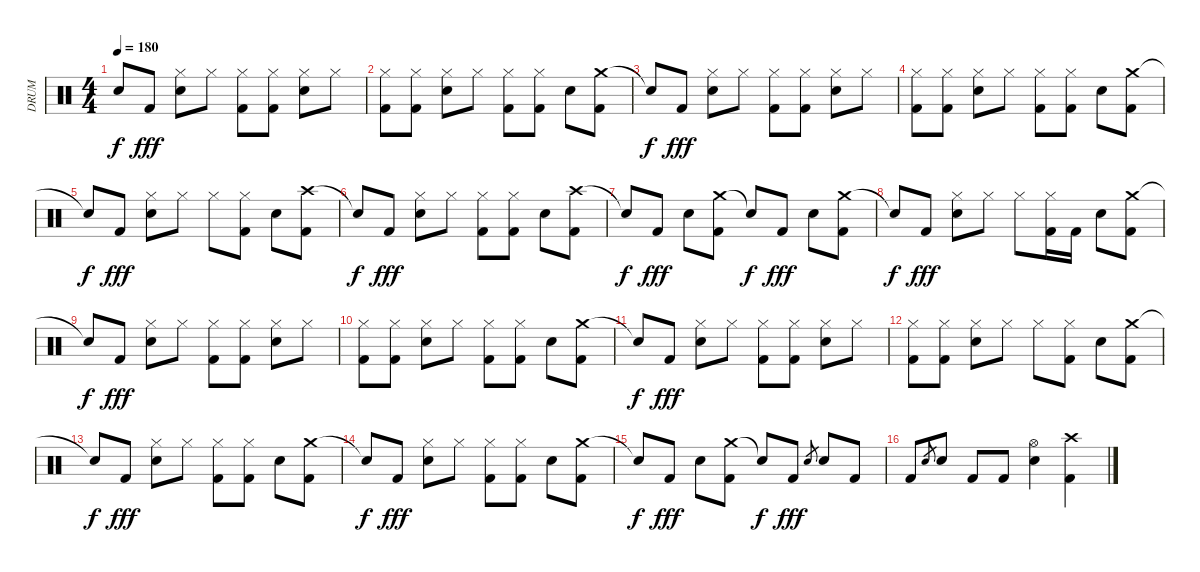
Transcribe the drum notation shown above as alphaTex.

\track ("DRUM" "DRUM") {instrument percussion}
\staff {score}
\articulation defaults
\ts (4 4)
\tempo 180
\clef neutral
\ks c "Snare (hit)"{t}.8{dy f} "Kick (hit) 2".8{dy fff}
("Hi-Hat (closed)" "Snare (hit) 2").8 "Hi-Hat (closed)".8 ("Hi-Hat (closed)" "Kick (hit) 2").8 ("Hi-Hat (closed)" "Kick (hit) 2").8 ("Hi-Hat (closed)" "Snare (hit) 2").8 "Hi-Hat (closed)".8 |
("Hi-Hat (closed)" "Kick (hit) 2").8 ("Hi-Hat (closed)" "Kick (hit) 2").8 ("Hi-Hat (closed)" "Snare (hit) 2").8 "Hi-Hat (closed)".8 ("Hi-Hat (closed)" "Kick (hit) 2").8 ("Hi-Hat (closed)" "Kick (hit) 2").8 "Snare (hit) 2".8 ("Crash medium (hit)" "Kick (hit) 2").8 |
"Snare (hit)"{t}.8{dy f} "Kick (hit) 2".8{dy fff} ("Hi-Hat (closed)" "Snare (hit) 2").8 "Hi-Hat (closed)".8 ("Hi-Hat (closed)" "Kick (hit) 2").8 ("Hi-Hat (closed)" "Kick (hit) 2").8 ("Hi-Hat (closed)" "Snare (hit) 2").8 "Hi-Hat (closed)".8 |
("Hi-Hat (closed)" "Kick (hit) 2").8 ("Hi-Hat (closed)" "Kick (hit) 2").8 ("Hi-Hat (closed)" "Snare (hit) 2").8 "Hi-Hat (closed)".8 ("Hi-Hat (closed)" "Kick (hit) 2").8 ("Hi-Hat (closed)" "Kick (hit) 2").8 "Snare (hit) 2".8 ("Crash medium (hit)" "Kick (hit) 2").8 |
"Snare (hit)"{t}.8{dy f} "Kick (hit) 2".8{dy fff} ("Hi-Hat (closed)" "Snare (hit) 2").8 "Hi-Hat (closed)".8 "Hi-Hat (closed)".8 ("Hi-Hat (closed)" "Kick (hit) 2").8 "Snare (hit) 2".8 ("Crash high (hit)" "Kick (hit) 2").8 |
"Snare (hit)"{t}.8{dy f} "Kick (hit) 2".8{dy fff} ("Hi-Hat (closed)" "Snare (hit) 2").8 "Hi-Hat (closed)".8 ("Hi-Hat (closed)" "Kick (hit) 2").8 ("Hi-Hat (closed)" "Kick (hit) 2").8 "Snare (hit) 2".8 ("Crash high (hit)" "Kick (hit) 2").8 |
"Snare (hit)"{t}.8{dy f} "Kick (hit) 2".8{dy fff} "Snare (hit) 2".8 ("Crash medium (hit)" "Kick (hit) 2").8 "Snare (hit)"{t}.8{dy f} "Kick (hit) 2".8{dy fff} "Snare (hit) 2".8 ("Crash medium (hit)" "Kick (hit) 2").8 |
"Snare (hit)"{t}.8{dy f} "Kick (hit) 2".8{dy fff} ("Hi-Hat (closed)" "Snare (hit) 2").8 "Hi-Hat (closed)".8 "Hi-Hat (closed)".8 ("Hi-Hat (closed)" "Kick (hit) 2").16 "Kick (hit) 2".16 "Snare (hit) 2".8 ("Crash medium (hit)" "Kick (hit) 2").8 |
"Snare (hit)"{t}.8{dy f} "Kick (hit) 2".8{dy fff} ("Hi-Hat (closed)" "Snare (hit) 2").8 "Hi-Hat (closed)".8 ("Hi-Hat (closed)" "Kick (hit) 2").8 ("Hi-Hat (closed)" "Kick (hit) 2").8 ("Hi-Hat (closed)" "Snare (hit) 2").8 "Hi-Hat (closed)".8 |
("Hi-Hat (closed)" "Kick (hit) 2").8 ("Hi-Hat (closed)" "Kick (hit) 2").8 ("Hi-Hat (closed)" "Snare (hit) 2").8 "Hi-Hat (closed)".8 ("Hi-Hat (closed)" "Kick (hit) 2").8 ("Hi-Hat (closed)" "Kick (hit) 2").8 "Snare (hit) 2".8 ("Crash medium (hit)" "Kick (hit) 2").8 |
"Snare (hit)"{t}.8{dy f} "Kick (hit) 2".8{dy fff} ("Hi-Hat (closed)" "Snare (hit) 2").8 "Hi-Hat (closed)".8 ("Hi-Hat (closed)" "Kick (hit) 2").8 ("Hi-Hat (closed)" "Kick (hit) 2").8 ("Hi-Hat (closed)" "Snare (hit) 2").8 "Hi-Hat (closed)".8 |
("Hi-Hat (closed)" "Kick (hit) 2").8 ("Hi-Hat (closed)" "Kick (hit) 2").8 ("Hi-Hat (closed)" "Snare (hit) 2").8 "Hi-Hat (closed)".8 "Hi-Hat (closed)".8 ("Hi-Hat (closed)" "Kick (hit) 2").8 "Snare (hit) 2".8 ("Crash medium (hit)" "Kick (hit) 2").8 |
"Snare (hit)"{t}.8{dy f} "Kick (hit) 2".8{dy fff} ("Hi-Hat (closed)" "Snare (hit) 2").8 "Hi-Hat (closed)".8 ("Hi-Hat (closed)" "Kick (hit) 2").8 ("Hi-Hat (closed)" "Kick (hit) 2").8 "Snare (hit) 2".8 ("Crash medium (hit)" "Kick (hit) 2").8 |
"Snare (hit)"{t}.8{dy f} "Kick (hit) 2".8{dy fff} ("Hi-Hat (closed)" "Snare (hit) 2").8 "Hi-Hat (closed)".8 ("Hi-Hat (closed)" "Kick (hit) 2").8 ("Hi-Hat (closed)" "Kick (hit) 2").8 "Snare (hit) 2".8 ("Crash medium (hit)" "Kick (hit) 2").8 |
"Snare (hit)"{t}.8{dy f} "Kick (hit) 2".8{dy fff} "Snare (hit) 2".8 ("Crash medium (hit)" "Kick (hit) 2").8 "Snare (hit)"{t}.8{dy f} "Kick (hit) 2".8{dy fff} "Snare (hit) 2".8{gr} "Snare (hit) 2".8 "Kick (hit) 2".8 |
"Kick (hit) 2".8 "Snare (hit) 2".8{gr} "Snare (hit) 2".8 "Kick (hit) 2".8 "Kick (hit) 2".8 ("Hi-Hat (open)" "Snare (hit) 2").4 ("Crash high (hit)" "Kick (hit) 2").4
